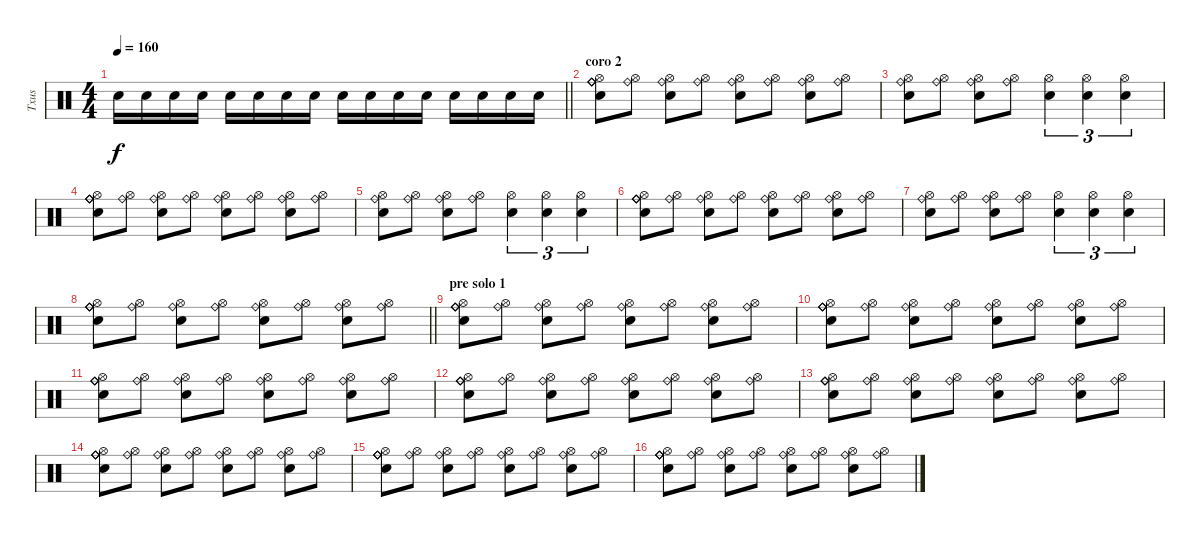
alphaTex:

\track ("Txus" "Txus") {instrument percussion}
\staff {score}
\articulation defaults
\ts (4 4)
\tempo 160
\clef neutral
\barLineRight lightlight
\ks c "Snare (hit) 2".16{dy f} "Snare (hit) 2".16 "Snare (hit) 2".16 "Snare (hit) 2".16 "Snare (hit) 2".16 "Snare (hit) 2".16 "Snare (hit) 2".16 "Snare (hit) 2".16 "Snare (hit) 2".16 "Snare (hit) 2".16 "Snare (hit) 2".16 "Snare (hit) 2".16 "Snare (hit) 2".16 "Snare (hit) 2".16 "Snare (hit) 2".16 "Snare (hit) 2".16
|
\section ("" "coro 2")
("Snare (hit) 2" "Hi-Hat (open)" "Ride (bell)" "Ride (bell)" "Ride (bell)").8 ("Hi-Hat (open)" "Ride (bell)").8 ("Snare (hit) 2" "Hi-Hat (open)" "Ride (bell)").8 ("Hi-Hat (open)" "Ride (bell)").8 ("Snare (hit) 2" "Hi-Hat (open)" "Ride (bell)").8 ("Hi-Hat (open)" "Ride (bell)").8 ("Snare (hit) 2" "Hi-Hat (open)" "Ride (bell)").8 ("Hi-Hat (open)" "Ride (bell)").8 |
("Snare (hit) 2" "Ride (bell)" "Hi-Hat (open)").8 ("Ride (bell)" "Hi-Hat (open)").8 ("Snare (hit) 2" "Ride (bell)" "Hi-Hat (open)").8 ("Ride (bell)" "Hi-Hat (open)").8 ("Snare (hit) 2" "Hi-Hat (open)").4{tu (3 2)} ("Snare (hit) 2" "Hi-Hat (open)").4{tu (3 2)} ("Snare (hit) 2" "Hi-Hat (open)").4{tu (3 2)} |
("Snare (hit) 2" "Hi-Hat (open)" "Ride (bell)" "Ride (bell)" "Ride (bell)").8 ("Hi-Hat (open)" "Ride (bell)").8 ("Snare (hit) 2" "Hi-Hat (open)" "Ride (bell)").8 ("Hi-Hat (open)" "Ride (bell)").8 ("Snare (hit) 2" "Hi-Hat (open)" "Ride (bell)").8 ("Hi-Hat (open)" "Ride (bell)").8 ("Snare (hit) 2" "Hi-Hat (open)" "Ride (bell)").8 ("Hi-Hat (open)" "Ride (bell)").8 |
("Snare (hit) 2" "Ride (bell)" "Hi-Hat (open)").8 ("Ride (bell)" "Hi-Hat (open)").8 ("Snare (hit) 2" "Ride (bell)" "Hi-Hat (open)").8 ("Ride (bell)" "Hi-Hat (open)").8 ("Snare (hit) 2" "Hi-Hat (open)").4{tu (3 2)} ("Snare (hit) 2" "Hi-Hat (open)").4{tu (3 2)} ("Snare (hit) 2" "Hi-Hat (open)").4{tu (3 2)} |
("Snare (hit) 2" "Hi-Hat (open)" "Ride (bell)" "Ride (bell)" "Ride (bell)").8 ("Hi-Hat (open)" "Ride (bell)").8 ("Snare (hit) 2" "Hi-Hat (open)" "Ride (bell)").8 ("Hi-Hat (open)" "Ride (bell)").8 ("Snare (hit) 2" "Hi-Hat (open)" "Ride (bell)").8 ("Hi-Hat (open)" "Ride (bell)").8 ("Snare (hit) 2" "Hi-Hat (open)" "Ride (bell)").8 ("Hi-Hat (open)" "Ride (bell)").8 |
("Snare (hit) 2" "Ride (bell)" "Hi-Hat (open)").8 ("Ride (bell)" "Hi-Hat (open)").8 ("Snare (hit) 2" "Ride (bell)" "Hi-Hat (open)").8 ("Ride (bell)" "Hi-Hat (open)").8 ("Snare (hit) 2" "Hi-Hat (open)").4{tu (3 2)} ("Snare (hit) 2" "Hi-Hat (open)").4{tu (3 2)} ("Snare (hit) 2" "Hi-Hat (open)").4{tu (3 2)} |
\barLineRight lightlight
("Snare (hit) 2" "Hi-Hat (open)" "Ride (bell)" "Ride (bell)" "Ride (bell)").8 ("Hi-Hat (open)" "Ride (bell)").8 ("Snare (hit) 2" "Hi-Hat (open)" "Ride (bell)").8 ("Hi-Hat (open)" "Ride (bell)").8 ("Snare (hit) 2" "Hi-Hat (open)" "Ride (bell)").8 ("Hi-Hat (open)" "Ride (bell)").8 ("Snare (hit) 2" "Hi-Hat (open)" "Ride (bell)").8 ("Hi-Hat (open)" "Ride (bell)").8 |
\section ("" "pre solo 1")
("Snare (hit) 2" "Hi-Hat (open)" "Ride (bell)" "Ride (bell)" "Ride (bell)").8 ("Hi-Hat (open)" "Ride (bell)").8 ("Snare (hit) 2" "Hi-Hat (open)" "Ride (bell)").8 ("Hi-Hat (open)" "Ride (bell)").8 ("Snare (hit) 2" "Hi-Hat (open)" "Ride (bell)").8 ("Hi-Hat (open)" "Ride (bell)").8 ("Snare (hit) 2" "Hi-Hat (open)" "Ride (bell)").8 ("Hi-Hat (open)" "Ride (bell)").8 |
("Snare (hit) 2" "Hi-Hat (open)" "Ride (bell)" "Ride (bell)" "Ride (bell)").8 ("Hi-Hat (open)" "Ride (bell)").8 ("Snare (hit) 2" "Hi-Hat (open)" "Ride (bell)").8 ("Hi-Hat (open)" "Ride (bell)").8 ("Snare (hit) 2" "Hi-Hat (open)" "Ride (bell)").8 ("Hi-Hat (open)" "Ride (bell)").8 ("Snare (hit) 2" "Hi-Hat (open)" "Ride (bell)").8 ("Hi-Hat (open)" "Ride (bell)").8 |
("Snare (hit) 2" "Hi-Hat (open)" "Ride (bell)" "Ride (bell)" "Ride (bell)").8 ("Hi-Hat (open)" "Ride (bell)").8 ("Snare (hit) 2" "Hi-Hat (open)" "Ride (bell)").8 ("Hi-Hat (open)" "Ride (bell)").8 ("Snare (hit) 2" "Hi-Hat (open)" "Ride (bell)").8 ("Hi-Hat (open)" "Ride (bell)").8 ("Snare (hit) 2" "Hi-Hat (open)" "Ride (bell)").8 ("Hi-Hat (open)" "Ride (bell)").8 |
("Snare (hit) 2" "Hi-Hat (open)" "Ride (bell)" "Ride (bell)" "Ride (bell)").8 ("Hi-Hat (open)" "Ride (bell)").8 ("Snare (hit) 2" "Hi-Hat (open)" "Ride (bell)").8 ("Hi-Hat (open)" "Ride (bell)").8 ("Snare (hit) 2" "Hi-Hat (open)" "Ride (bell)").8 ("Hi-Hat (open)" "Ride (bell)").8 ("Snare (hit) 2" "Hi-Hat (open)" "Ride (bell)").8 ("Hi-Hat (open)" "Ride (bell)").8 |
("Snare (hit) 2" "Hi-Hat (open)" "Ride (bell)" "Ride (bell)" "Ride (bell)").8 ("Hi-Hat (open)" "Ride (bell)").8 ("Snare (hit) 2" "Hi-Hat (open)" "Ride (bell)").8 ("Hi-Hat (open)" "Ride (bell)").8 ("Snare (hit) 2" "Hi-Hat (open)" "Ride (bell)").8 ("Hi-Hat (open)" "Ride (bell)").8 ("Snare (hit) 2" "Hi-Hat (open)" "Ride (bell)").8 ("Hi-Hat (open)" "Ride (bell)").8 |
("Snare (hit) 2" "Hi-Hat (open)" "Ride (bell)" "Ride (bell)" "Ride (bell)").8 ("Hi-Hat (open)" "Ride (bell)").8 ("Snare (hit) 2" "Hi-Hat (open)" "Ride (bell)").8 ("Hi-Hat (open)" "Ride (bell)").8 ("Snare (hit) 2" "Hi-Hat (open)" "Ride (bell)").8 ("Hi-Hat (open)" "Ride (bell)").8 ("Snare (hit) 2" "Hi-Hat (open)" "Ride (bell)").8 ("Hi-Hat (open)" "Ride (bell)").8 |
("Snare (hit) 2" "Hi-Hat (open)" "Ride (bell)" "Ride (bell)" "Ride (bell)").8 ("Hi-Hat (open)" "Ride (bell)").8 ("Snare (hit) 2" "Hi-Hat (open)" "Ride (bell)").8 ("Hi-Hat (open)" "Ride (bell)").8 ("Snare (hit) 2" "Hi-Hat (open)" "Ride (bell)").8 ("Hi-Hat (open)" "Ride (bell)").8 ("Snare (hit) 2" "Hi-Hat (open)" "Ride (bell)").8 ("Hi-Hat (open)" "Ride (bell)").8 |
("Snare (hit) 2" "Hi-Hat (open)" "Ride (bell)" "Ride (bell)" "Ride (bell)").8 ("Hi-Hat (open)" "Ride (bell)").8 ("Snare (hit) 2" "Hi-Hat (open)" "Ride (bell)").8 ("Hi-Hat (open)" "Ride (bell)").8 ("Snare (hit) 2" "Hi-Hat (open)" "Ride (bell)").8 ("Hi-Hat (open)" "Ride (bell)").8 ("Snare (hit) 2" "Hi-Hat (open)" "Ride (bell)").8 ("Hi-Hat (open)" "Ride (bell)").8
